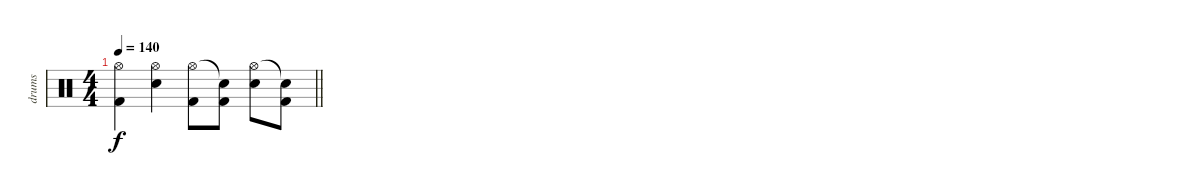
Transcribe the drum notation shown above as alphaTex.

\track ("drums" "drums") {instrument percussion}
\staff {score}
\articulation defaults
\ts (4 4)
\tempo 140
\clef neutral
\barLineRight lightlight
\ks c
("Hi-Hat (open)" "Kick (hit) 2").4{dy f} ("Hi-Hat (open)" "Electric Snare (hit)").4 ("Hi-Hat (open)" "Kick (hit) 2").8 ("Snare (hit)"{t} "Kick (hit) 2").8 ("Hi-Hat (open)" "Electric Snare (hit)").8 ("Snare (hit)"{t} "Kick (hit) 2").8
